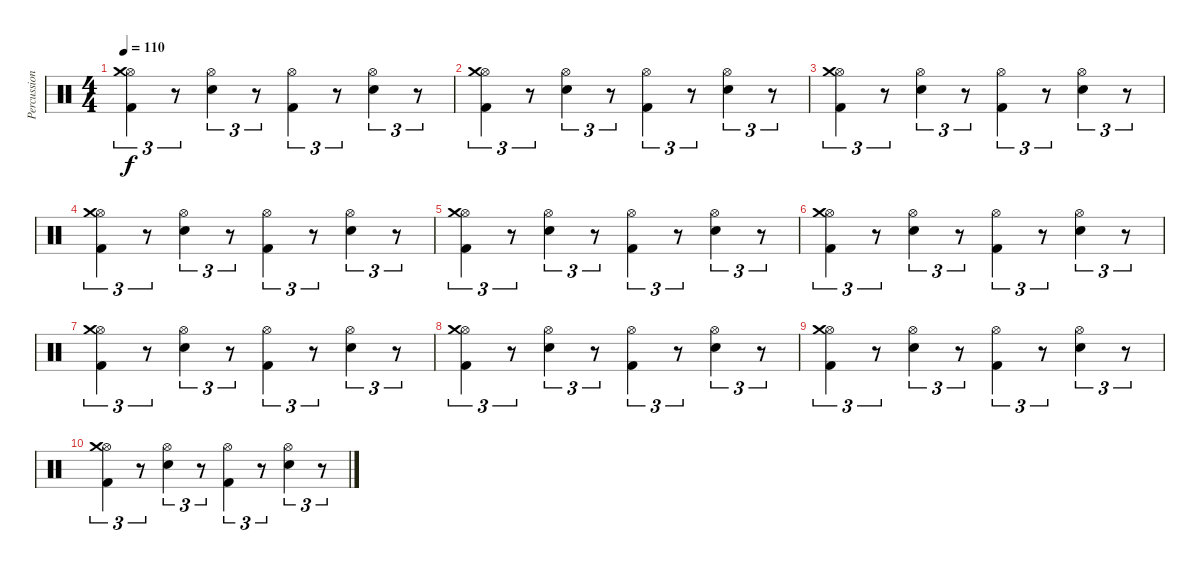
\track ("Percussion" "Percussion") {instrument percussion}
\staff {score}
\articulation defaults
\ts (4 4)
\tempo 110
\clef neutral
\ks c
("Kick (hit) 2" "Hi-Hat (open)" "Crash medium (hit)").4{tu (3 2) dy f} r.8{tu (3 2)} ("Electric Snare (hit)" "Hi-Hat (open)").4{tu (3 2)} r.8{tu (3 2)} ("Kick (hit) 2" "Hi-Hat (open)").4{tu (3 2)} r.8{tu (3 2)} ("Electric Snare (hit)" "Hi-Hat (open)").4{tu (3 2)} r.8{tu (3 2)} |
("Kick (hit) 2" "Hi-Hat (open)" "Crash medium (hit)").4{tu (3 2)} r.8{tu (3 2)} ("Electric Snare (hit)" "Hi-Hat (open)").4{tu (3 2)} r.8{tu (3 2)} ("Kick (hit) 2" "Hi-Hat (open)").4{tu (3 2)} r.8{tu (3 2)} ("Electric Snare (hit)" "Hi-Hat (open)").4{tu (3 2)} r.8{tu (3 2)} |
("Kick (hit) 2" "Hi-Hat (open)" "Crash medium (hit)").4{tu (3 2)} r.8{tu (3 2)} ("Electric Snare (hit)" "Hi-Hat (open)").4{tu (3 2)} r.8{tu (3 2)} ("Kick (hit) 2" "Hi-Hat (open)").4{tu (3 2)} r.8{tu (3 2)} ("Electric Snare (hit)" "Hi-Hat (open)").4{tu (3 2)} r.8{tu (3 2)} |
("Kick (hit) 2" "Hi-Hat (open)" "Crash medium (hit)").4{tu (3 2)} r.8{tu (3 2)} ("Electric Snare (hit)" "Hi-Hat (open)").4{tu (3 2)} r.8{tu (3 2)} ("Kick (hit) 2" "Hi-Hat (open)").4{tu (3 2)} r.8{tu (3 2)} ("Electric Snare (hit)" "Hi-Hat (open)").4{tu (3 2)} r.8{tu (3 2)} |
("Kick (hit) 2" "Hi-Hat (open)" "Crash medium (hit)").4{tu (3 2)} r.8{tu (3 2)} ("Electric Snare (hit)" "Hi-Hat (open)").4{tu (3 2)} r.8{tu (3 2)} ("Kick (hit) 2" "Hi-Hat (open)").4{tu (3 2)} r.8{tu (3 2)} ("Electric Snare (hit)" "Hi-Hat (open)").4{tu (3 2)} r.8{tu (3 2)} |
("Kick (hit) 2" "Hi-Hat (open)" "Crash medium (hit)").4{tu (3 2)} r.8{tu (3 2)} ("Electric Snare (hit)" "Hi-Hat (open)").4{tu (3 2)} r.8{tu (3 2)} ("Kick (hit) 2" "Hi-Hat (open)").4{tu (3 2)} r.8{tu (3 2)} ("Electric Snare (hit)" "Hi-Hat (open)").4{tu (3 2)} r.8{tu (3 2)} |
("Kick (hit) 2" "Hi-Hat (open)" "Crash medium (hit)").4{tu (3 2)} r.8{tu (3 2)} ("Electric Snare (hit)" "Hi-Hat (open)").4{tu (3 2)} r.8{tu (3 2)} ("Kick (hit) 2" "Hi-Hat (open)").4{tu (3 2)} r.8{tu (3 2)} ("Electric Snare (hit)" "Hi-Hat (open)").4{tu (3 2)} r.8{tu (3 2)} |
("Kick (hit) 2" "Hi-Hat (open)" "Crash medium (hit)").4{tu (3 2)} r.8{tu (3 2)} ("Electric Snare (hit)" "Hi-Hat (open)").4{tu (3 2)} r.8{tu (3 2)} ("Kick (hit) 2" "Hi-Hat (open)").4{tu (3 2)} r.8{tu (3 2)} ("Electric Snare (hit)" "Hi-Hat (open)").4{tu (3 2)} r.8{tu (3 2)} |
("Kick (hit) 2" "Hi-Hat (open)" "Crash medium (hit)").4{tu (3 2)} r.8{tu (3 2)} ("Electric Snare (hit)" "Hi-Hat (open)").4{tu (3 2)} r.8{tu (3 2)} ("Kick (hit) 2" "Hi-Hat (open)").4{tu (3 2)} r.8{tu (3 2)} ("Electric Snare (hit)" "Hi-Hat (open)").4{tu (3 2)} r.8{tu (3 2)} |
("Kick (hit) 2" "Hi-Hat (open)" "Crash medium (hit)").4{tu (3 2)} r.8{tu (3 2)} ("Electric Snare (hit)" "Hi-Hat (open)").4{tu (3 2)} r.8{tu (3 2)} ("Kick (hit) 2" "Hi-Hat (open)").4{tu (3 2)} r.8{tu (3 2)} ("Electric Snare (hit)" "Hi-Hat (open)").4{tu (3 2)} r.8{tu (3 2)}
